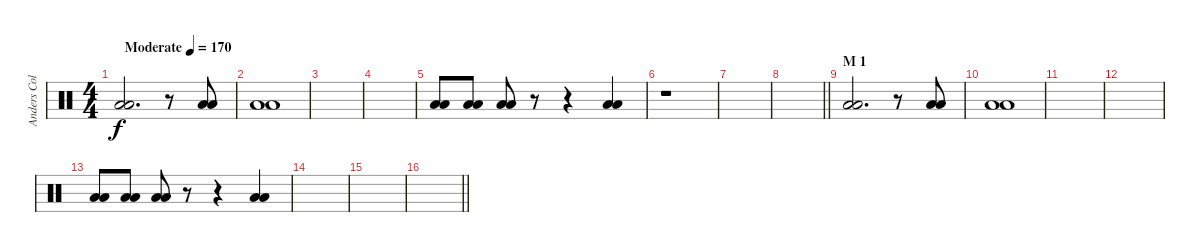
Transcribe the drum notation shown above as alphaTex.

\track ("Anders Colsefni" "Anders Col") {instrument percussion}
\staff {score}
\articulation defaults
\ts (4 4)
\tempo (170 "Moderate")
\clef neutral
\ks c
("Low Floor Tom (hit)" "Low Floor Tom (hit)").2{d dy f} r.8 ("Low Floor Tom (hit)" "Low Floor Tom (hit)").8 |
("Low Floor Tom (hit)" "Low Floor Tom (hit)").1 |
|
|
("Low Floor Tom (hit)" "Low Floor Tom (hit)").8 ("Low Floor Tom (hit)" "Low Floor Tom (hit)").8 ("Low Floor Tom (hit)" "Low Floor Tom (hit)").8 r.8 r.4 ("Low Floor Tom (hit)" "Low Floor Tom (hit)").4 |
r.1 |
|
\barLineRight lightlight
|
\section ("" "M 1")
("Low Floor Tom (hit)" "Low Floor Tom (hit)").2{d} r.8 ("Low Floor Tom (hit)" "Low Floor Tom (hit)").8 |
("Low Floor Tom (hit)" "Low Floor Tom (hit)").1 |
|
|
("Low Floor Tom (hit)" "Low Floor Tom (hit)").8 ("Low Floor Tom (hit)" "Low Floor Tom (hit)").8 ("Low Floor Tom (hit)" "Low Floor Tom (hit)").8 r.8 r.4 ("Low Floor Tom (hit)" "Low Floor Tom (hit)").4 |
|
|
\barLineRight lightlight
